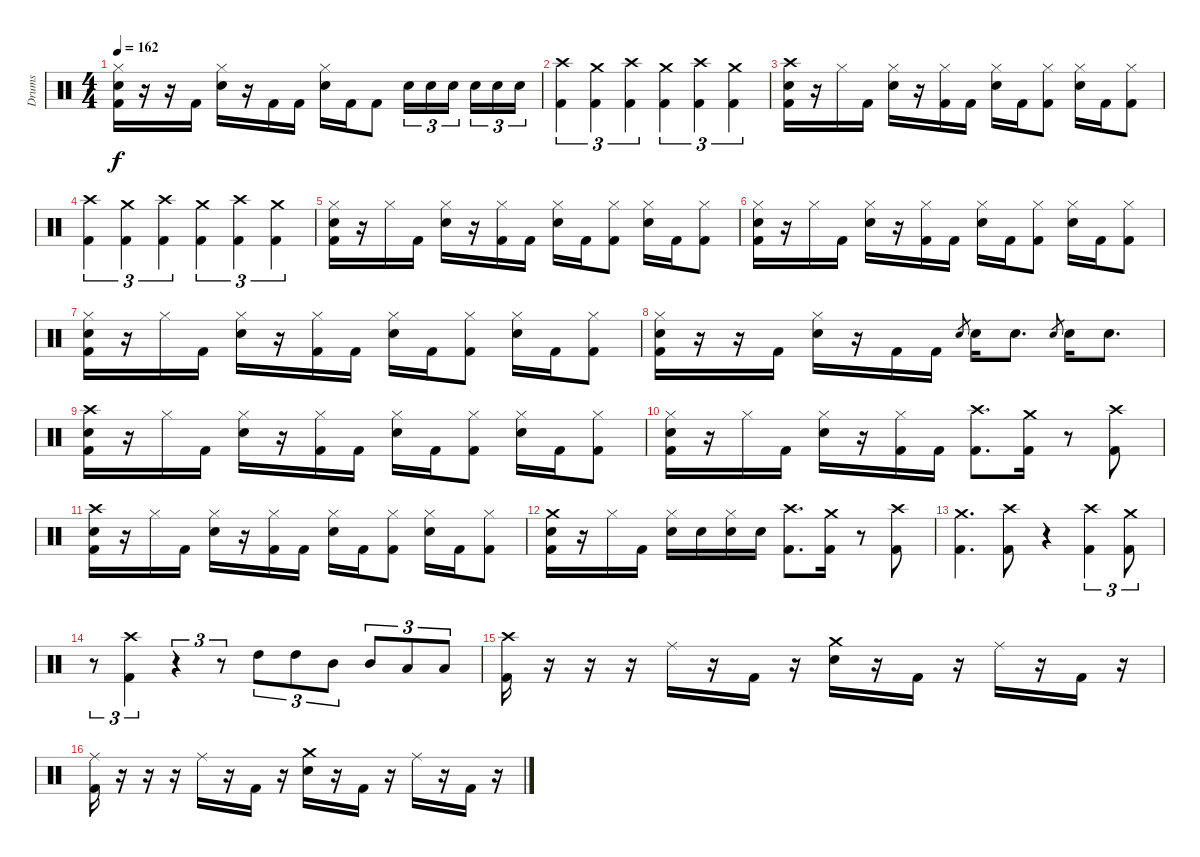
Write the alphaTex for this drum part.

\track ("Drums" "Drums") {instrument percussion}
\staff {score}
\articulation defaults
\ts (4 4)
\tempo 162
\clef neutral
\ks c
("Hi-Hat (closed)" "Snare (hit) 2" "Kick (hit) 2").16{dy f} r.16 r.16 "Kick (hit) 2".16 ("Hi-Hat (closed)" "Snare (hit) 2").16 r.16 "Kick (hit) 2".16 "Kick (hit) 2".16 ("Hi-Hat (closed)" "Snare (hit) 2").16 "Kick (hit) 2".16 "Kick (hit) 2".8 "Snare (hit) 2".16{tu (3 2)} "Snare (hit) 2".16{tu (3 2)} "Snare (hit) 2".16{tu (3 2) beam splitsecondary} "Snare (hit) 2".16{tu (3 2)} "Snare (hit) 2".16{tu (3 2)} "Snare (hit) 2".16{tu (3 2)} |
("Crash high (hit)" "Kick (hit) 2").4{tu (3 2)} ("Crash medium (hit)" "Kick (hit) 2").4{tu (3 2)} ("Crash high (hit)" "Kick (hit) 2").4{tu (3 2)} ("Crash medium (hit)" "Kick (hit) 2").4{tu (3 2)} ("Crash high (hit)" "Kick (hit) 2").4{tu (3 2)} ("Crash medium (hit)" "Kick (hit) 2").4{tu (3 2)} |
("Crash high (hit)" "Snare (hit) 2" "Kick (hit) 2").16 r.16 "Hi-Hat (closed)".16 "Kick (hit) 2".16 ("Hi-Hat (closed)" "Snare (hit) 2").16 r.16 ("Hi-Hat (closed)" "Kick (hit) 2").16 "Kick (hit) 2".16 ("Hi-Hat (closed)" "Snare (hit) 2").16 "Kick (hit) 2".16 ("Hi-Hat (closed)" "Kick (hit) 2").8 ("Hi-Hat (closed)" "Snare (hit) 2").16 "Kick (hit) 2".16 ("Hi-Hat (closed)" "Kick (hit) 2").8 |
("Crash high (hit)" "Kick (hit) 2").4{tu (3 2)} ("Crash medium (hit)" "Kick (hit) 2").4{tu (3 2)} ("Crash high (hit)" "Kick (hit) 2").4{tu (3 2)} ("Crash medium (hit)" "Kick (hit) 2").4{tu (3 2)} ("Crash high (hit)" "Kick (hit) 2").4{tu (3 2)} ("Crash medium (hit)" "Kick (hit) 2").4{tu (3 2)} |
("Hi-Hat (closed)" "Snare (hit) 2" "Kick (hit) 2").16 r.16 "Hi-Hat (closed)".16 "Kick (hit) 2".16 ("Hi-Hat (closed)" "Snare (hit) 2").16 r.16 ("Hi-Hat (closed)" "Kick (hit) 2").16 "Kick (hit) 2".16 ("Hi-Hat (closed)" "Snare (hit) 2").16 "Kick (hit) 2".16 ("Hi-Hat (closed)" "Kick (hit) 2").8 ("Hi-Hat (closed)" "Snare (hit) 2").16 "Kick (hit) 2".16 ("Hi-Hat (closed)" "Kick (hit) 2").8 |
("Hi-Hat (closed)" "Snare (hit) 2" "Kick (hit) 2").16 r.16 "Hi-Hat (closed)".16 "Kick (hit) 2".16 ("Hi-Hat (closed)" "Snare (hit) 2").16 r.16 ("Hi-Hat (closed)" "Kick (hit) 2").16 "Kick (hit) 2".16 ("Hi-Hat (closed)" "Snare (hit) 2").16 "Kick (hit) 2".16 ("Hi-Hat (closed)" "Kick (hit) 2").8 ("Hi-Hat (closed)" "Snare (hit) 2").16 "Kick (hit) 2".16 ("Hi-Hat (closed)" "Kick (hit) 2").8 |
("Hi-Hat (closed)" "Snare (hit) 2" "Kick (hit) 2").16 r.16 "Hi-Hat (closed)".16 "Kick (hit) 2".16 ("Hi-Hat (closed)" "Snare (hit) 2").16 r.16 ("Hi-Hat (closed)" "Kick (hit) 2").16 "Kick (hit) 2".16 ("Hi-Hat (closed)" "Snare (hit) 2").16 "Kick (hit) 2".16 ("Hi-Hat (closed)" "Kick (hit) 2").8 ("Hi-Hat (closed)" "Snare (hit) 2").16 "Kick (hit) 2".16 ("Hi-Hat (closed)" "Kick (hit) 2").8 |
("Hi-Hat (closed)" "Snare (hit) 2" "Kick (hit) 2").16 r.16 r.16 "Kick (hit) 2".16 ("Hi-Hat (closed)" "Snare (hit) 2").16 r.16 "Kick (hit) 2".16 "Kick (hit) 2".16 "Snare (hit) 2".8{gr} "Snare (hit) 2".16 "Snare (hit) 2".8{d} "Snare (hit) 2".8{gr} "Snare (hit) 2".16 "Snare (hit) 2".8{d} |
("Crash high (hit)" "Snare (hit) 2" "Kick (hit) 2").16 r.16 "Hi-Hat (closed)".16 "Kick (hit) 2".16 ("Hi-Hat (closed)" "Snare (hit) 2").16 r.16 ("Hi-Hat (closed)" "Kick (hit) 2").16 "Kick (hit) 2".16 ("Hi-Hat (closed)" "Snare (hit) 2").16 "Kick (hit) 2".16 ("Hi-Hat (closed)" "Kick (hit) 2").8 ("Hi-Hat (closed)" "Snare (hit) 2").16 "Kick (hit) 2".16 ("Hi-Hat (closed)" "Kick (hit) 2").8 |
("Hi-Hat (closed)" "Snare (hit) 2" "Kick (hit) 2").16 r.16 "Hi-Hat (closed)".16 "Kick (hit) 2".16 ("Hi-Hat (closed)" "Snare (hit) 2").16 r.16 ("Hi-Hat (closed)" "Kick (hit) 2").16 "Kick (hit) 2".16 ("Crash high (hit)" "Kick (hit) 2").8{d} ("Crash medium (hit)" "Kick (hit) 2").16 r.8 ("Crash high (hit)" "Kick (hit) 2").8 |
("Crash high (hit)" "Snare (hit) 2" "Kick (hit) 2").16 r.16 "Hi-Hat (closed)".16 "Kick (hit) 2".16 ("Hi-Hat (closed)" "Snare (hit) 2").16 r.16 ("Hi-Hat (closed)" "Kick (hit) 2").16 "Kick (hit) 2".16 ("Hi-Hat (closed)" "Snare (hit) 2").16 "Kick (hit) 2".16 ("Hi-Hat (closed)" "Kick (hit) 2").8 ("Hi-Hat (closed)" "Snare (hit) 2").16 "Kick (hit) 2".16 ("Hi-Hat (closed)" "Kick (hit) 2").8 |
("Crash medium (hit)" "Snare (hit) 2" "Kick (hit) 2").16 r.16 "Hi-Hat (closed)".16 "Kick (hit) 2".16 ("Hi-Hat (closed)" "Snare (hit) 2").16 "Snare (hit) 2".16 ("Hi-Hat (closed)" "Snare (hit) 2").16 "Snare (hit) 2".16 ("Crash high (hit)" "Kick (hit) 2").8{d} ("Crash medium (hit)" "Kick (hit) 2").16 r.8 ("Crash high (hit)" "Kick (hit) 2").8 |
("Crash medium (hit)" "Kick (hit) 2").4{d} ("Crash high (hit)" "Kick (hit) 2").8 r.4 ("Crash high (hit)" "Kick (hit) 2").4{tu (3 2)} ("Crash medium (hit)" "Kick (hit) 2").8{tu (3 2)} |
r.8{tu (3 2)} ("Crash high (hit)" "Kick (hit) 2").4{tu (3 2)} r.4{tu (3 2)} r.8{tu (3 2)} "High Tom (hit)".8{tu (3 2)} "High Tom (hit)".8{tu (3 2)} "Mid Tom (hit)".8{tu (3 2)} "Mid Tom (hit)".8{tu (3 2)} "Low Tom (hit)".8{tu (3 2)} "Low Tom (hit)".8{tu (3 2)} |
("Crash high (hit)" "Kick (hit) 2").16 r.16 r.16 r.16 "Ride (middle)".16 r.16 "Kick (hit) 2".16 r.16 ("Crash medium (hit)" "Snare (hit) 2").16 r.16 "Kick (hit) 2".16 r.16 "Ride (middle)".16 r.16 "Kick (hit) 2".16 r.16 |
("Ride (middle)" "Kick (hit) 2").16 r.16 r.16 r.16 "Ride (middle)".16 r.16 "Kick (hit) 2".16 r.16 ("Crash medium (hit)" "Snare (hit) 2").16 r.16 "Kick (hit) 2".16 r.16 "Ride (middle)".16 r.16 "Kick (hit) 2".16 r.16
